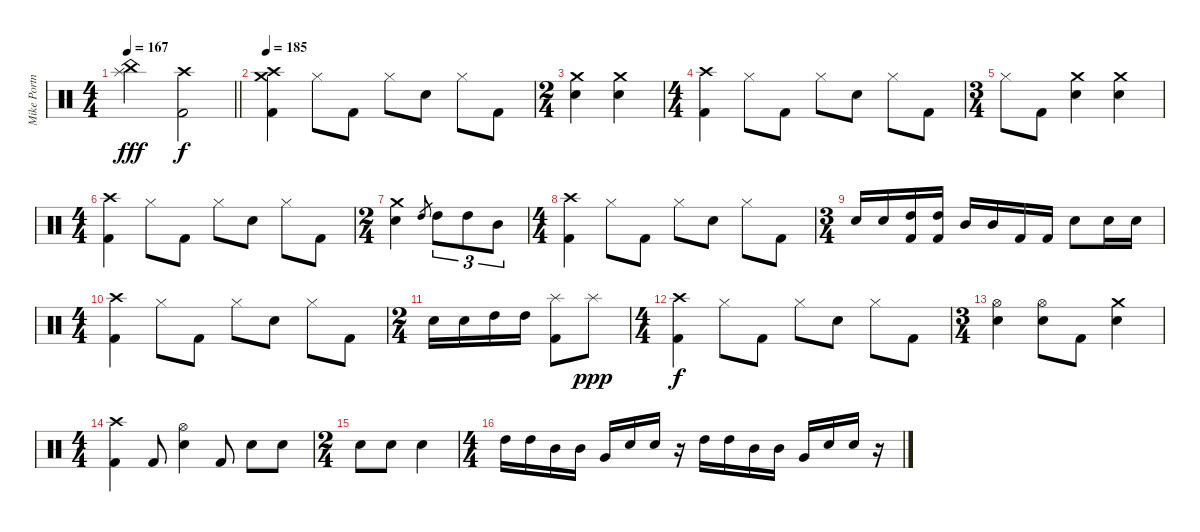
\track ("Mike Portnoy" "Mike Portn") {instrument percussion}
\staff {score}
\articulation defaults
\ts (4 4)
\tempo 167
\clef neutral
\barLineRight lightlight
\ks c
("China (hit)" "Splash (hit)").2{dy fff} ("Crash high (hit)" "Kick (hit) 2").2{dy f} |
\tempo 185
("Crash high (hit)" "Crash medium (hit)" "Kick (hit) 2").4 "Hi-Hat (closed)".8 "Kick (hit) 2".8 "Hi-Hat (closed)".8 "Electric Snare (hit)".8 "Hi-Hat (closed)".8 "Kick (hit) 2".8 |
\ts (2 4)
("Crash medium (hit)" "Electric Snare (hit)").4 ("Crash medium (hit)" "Electric Snare (hit)").4 |
\ts (4 4)
("Crash high (hit)" "Kick (hit) 2").4 "Hi-Hat (closed)".8 "Kick (hit) 2".8 "Hi-Hat (closed)".8 "Electric Snare (hit)".8 "Hi-Hat (closed)".8 "Kick (hit) 2".8 |
\ts (3 4)
"Hi-Hat (closed)".8 "Kick (hit) 2".8 ("Crash medium (hit)" "Electric Snare (hit)").4 ("Crash medium (hit)" "Electric Snare (hit)").4 |
\ts (4 4)
("Crash high (hit)" "Kick (hit) 2").4 "Hi-Hat (closed)".8 "Kick (hit) 2".8 "Hi-Hat (closed)".8 "Electric Snare (hit)".8 "Hi-Hat (closed)".8 "Kick (hit) 2".8 |
\ts (2 4)
("Crash medium (hit)" "Electric Snare (hit)").4 "High Tom (hit)".8{gr} "High Tom (hit)".8{tu (3 2)} "High Tom (hit)".8{tu (3 2)} "Mid Tom (hit)".8{tu (3 2)} |
\ts (4 4)
("Crash high (hit)" "Kick (hit) 2").4 "Hi-Hat (closed)".8 "Kick (hit) 2".8 "Hi-Hat (closed)".8 "Electric Snare (hit)".8 "Hi-Hat (closed)".8 "Kick (hit) 2".8 |
\ts (3 4)
"Electric Snare (hit)".16 "Electric Snare (hit)".16 ("High Tom (hit)" "Kick (hit) 2").16 ("High Tom (hit)" "Kick (hit) 2").16 "Mid Tom (hit)".16 "Mid Tom (hit)".16 "Kick (hit) 2".16 "Kick (hit) 2".16 "Electric Snare (hit)".8 "Electric Snare (hit)".16 "Electric Snare (hit)".16 |
\ts (4 4)
("Crash high (hit)" "Kick (hit) 2").4 "Hi-Hat (closed)".8 "Kick (hit) 2".8 "Hi-Hat (closed)".8 "Electric Snare (hit)".8 "Hi-Hat (closed)".8 "Kick (hit) 2".8 |
\ts (2 4)
"Electric Snare (hit)".16 "Electric Snare (hit)".16 "High Tom (hit)".16 "High Tom (hit)".16 ("Splash (hit)" "Kick (hit) 2").8 "Splash (hit)".8{dy ppp} |
\ts (4 4)
("Crash high (hit)" "Kick (hit) 2").4{dy f} "Hi-Hat (closed)".8 "Kick (hit) 2".8 "Hi-Hat (closed)".8 "Electric Snare (hit)".8 "Hi-Hat (closed)".8 "Kick (hit) 2".8 |
\ts (3 4)
("Hi-Hat (open)" "Electric Snare (hit)").4 ("Hi-Hat (open)" "Electric Snare (hit)").8 "Kick (hit) 2".8 ("Crash medium (hit)" "Electric Snare (hit)").4 |
\ts (4 4)
("Crash high (hit)" "Kick (hit) 2").4 "Kick (hit) 2".8 ("Hi-Hat (open)" "Electric Snare (hit)").4 "Kick (hit) 2".8 "Electric Snare (hit)".8 "Electric Snare (hit)".8 |
\ts (2 4)
"Electric Snare (hit)".8 "Electric Snare (hit)".8 "Electric Snare (hit)".4 |
\ts (4 4)
"High Tom (hit)".16 "High Tom (hit)".16 "Mid Tom (hit)".16 "Mid Tom (hit)".16 "Very Low Tom (hit)".16 "Electric Snare (hit)".16 "Electric Snare (hit)".16 r.16 "High Tom (hit)".16 "High Tom (hit)".16 "Mid Tom (hit)".16 "Mid Tom (hit)".16 "Very Low Tom (hit)".16 "Electric Snare (hit)".16 "Electric Snare (hit)".16 r.16
